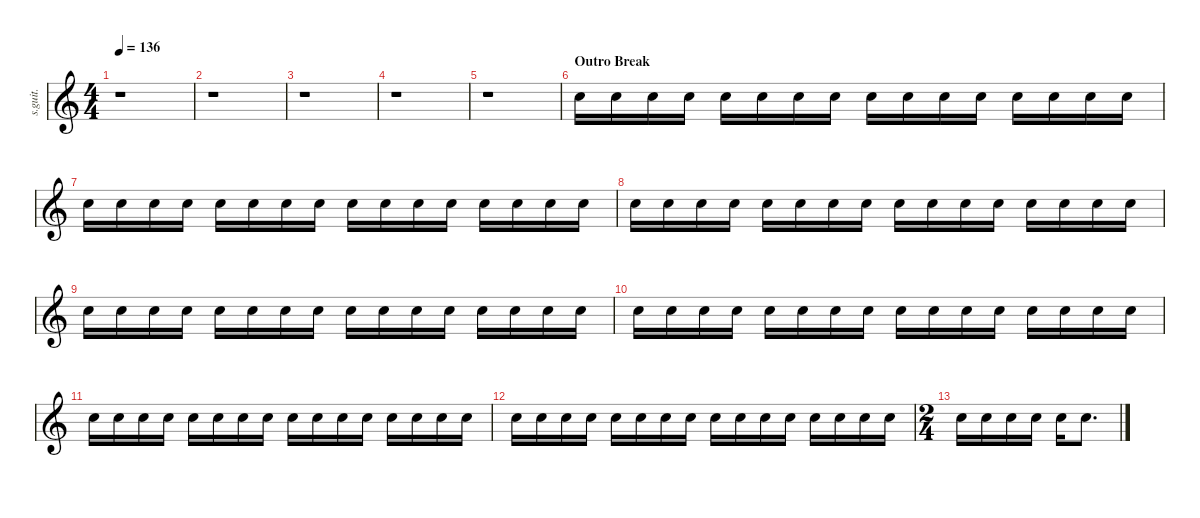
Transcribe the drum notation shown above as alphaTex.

\defaultSystemsLayout 4
\hideDynamics
\bracketExtendMode nobrackets
\track ("Chris Fehn" "s.guit.") {instrument percussion}
\staff {score}
\articulation defaults
\ts (4 4)
\tempo 136
\clef g2
\ks c
r.1{dy fff} |
r.1 |
r.1 |
r.1 |
r.1 |
\section ("" "Outro Break")
"Snare (hit) 2".16{lyrics (0 "") lyrics (1 "") lyrics (2 "") lyrics (3 "") lyrics (4 "") dy mp} "Snare (hit) 2".16{lyrics (0 "") lyrics (1 "") lyrics (2 "") lyrics (3 "") lyrics (4 "")} "Snare (hit) 2".16{lyrics (0 "") lyrics (1 "") lyrics (2 "") lyrics (3 "") lyrics (4 "")} "Snare (hit) 2".16{lyrics (0 "") lyrics (1 "") lyrics (2 "") lyrics (3 "") lyrics (4 "")} "Snare (hit) 2".16{lyrics (0 "") lyrics (1 "") lyrics (2 "") lyrics (3 "") lyrics (4 "")} "Snare (hit) 2".16{lyrics (0 "") lyrics (1 "") lyrics (2 "") lyrics (3 "") lyrics (4 "")} "Snare (hit) 2".16{lyrics (0 "") lyrics (1 "") lyrics (2 "") lyrics (3 "") lyrics (4 "")} "Snare (hit) 2".16{lyrics (0 "") lyrics (1 "") lyrics (2 "") lyrics (3 "") lyrics (4 "")} "Snare (hit) 2".16{lyrics (0 "") lyrics (1 "") lyrics (2 "") lyrics (3 "") lyrics (4 "")} "Snare (hit) 2".16{lyrics (0 "") lyrics (1 "") lyrics (2 "") lyrics (3 "") lyrics (4 "")} "Snare (hit) 2".16{lyrics (0 "") lyrics (1 "") lyrics (2 "") lyrics (3 "") lyrics (4 "")} "Snare (hit) 2".16{lyrics (0 "") lyrics (1 "") lyrics (2 "") lyrics (3 "") lyrics (4 "")} "Snare (hit) 2".16{lyrics (0 "") lyrics (1 "") lyrics (2 "") lyrics (3 "") lyrics (4 "")} "Snare (hit) 2".16{lyrics (0 "") lyrics (1 "") lyrics (2 "") lyrics (3 "") lyrics (4 "")} "Snare (hit) 2".16{lyrics (0 "") lyrics (1 "") lyrics (2 "") lyrics (3 "") lyrics (4 "")} "Snare (hit) 2".16{lyrics (0 "") lyrics (1 "") lyrics (2 "") lyrics (3 "") lyrics (4 "")} |
"Snare (hit) 2".16{lyrics (0 "") lyrics (1 "") lyrics (2 "") lyrics (3 "") lyrics (4 "")} "Snare (hit) 2".16{lyrics (0 "") lyrics (1 "") lyrics (2 "") lyrics (3 "") lyrics (4 "")} "Snare (hit) 2".16{lyrics (0 "") lyrics (1 "") lyrics (2 "") lyrics (3 "") lyrics (4 "")} "Snare (hit) 2".16{lyrics (0 "") lyrics (1 "") lyrics (2 "") lyrics (3 "") lyrics (4 "")} "Snare (hit) 2".16{lyrics (0 "") lyrics (1 "") lyrics (2 "") lyrics (3 "") lyrics (4 "")} "Snare (hit) 2".16{lyrics (0 "") lyrics (1 "") lyrics (2 "") lyrics (3 "") lyrics (4 "")} "Snare (hit) 2".16{lyrics (0 "") lyrics (1 "") lyrics (2 "") lyrics (3 "") lyrics (4 "")} "Snare (hit) 2".16{lyrics (0 "") lyrics (1 "") lyrics (2 "") lyrics (3 "") lyrics (4 "")} "Snare (hit) 2".16{lyrics (0 "") lyrics (1 "") lyrics (2 "") lyrics (3 "") lyrics (4 "")} "Snare (hit) 2".16{lyrics (0 "") lyrics (1 "") lyrics (2 "") lyrics (3 "") lyrics (4 "")} "Snare (hit) 2".16{lyrics (0 "") lyrics (1 "") lyrics (2 "") lyrics (3 "") lyrics (4 "")} "Snare (hit) 2".16{lyrics (0 "") lyrics (1 "") lyrics (2 "") lyrics (3 "") lyrics (4 "")} "Snare (hit) 2".16{lyrics (0 "") lyrics (1 "") lyrics (2 "") lyrics (3 "") lyrics (4 "")} "Snare (hit) 2".16{lyrics (0 "") lyrics (1 "") lyrics (2 "") lyrics (3 "") lyrics (4 "")} "Snare (hit) 2".16{lyrics (0 "") lyrics (1 "") lyrics (2 "") lyrics (3 "") lyrics (4 "")} "Snare (hit) 2".16{lyrics (0 "") lyrics (1 "") lyrics (2 "") lyrics (3 "") lyrics (4 "")} |
"Snare (hit) 2".16{lyrics (0 "") lyrics (1 "") lyrics (2 "") lyrics (3 "") lyrics (4 "")} "Snare (hit) 2".16{lyrics (0 "") lyrics (1 "") lyrics (2 "") lyrics (3 "") lyrics (4 "")} "Snare (hit) 2".16{lyrics (0 "") lyrics (1 "") lyrics (2 "") lyrics (3 "") lyrics (4 "")} "Snare (hit) 2".16{lyrics (0 "") lyrics (1 "") lyrics (2 "") lyrics (3 "") lyrics (4 "")} "Snare (hit) 2".16{lyrics (0 "") lyrics (1 "") lyrics (2 "") lyrics (3 "") lyrics (4 "")} "Snare (hit) 2".16{lyrics (0 "") lyrics (1 "") lyrics (2 "") lyrics (3 "") lyrics (4 "")} "Snare (hit) 2".16{lyrics (0 "") lyrics (1 "") lyrics (2 "") lyrics (3 "") lyrics (4 "")} "Snare (hit) 2".16{lyrics (0 "") lyrics (1 "") lyrics (2 "") lyrics (3 "") lyrics (4 "")} "Snare (hit) 2".16{lyrics (0 "") lyrics (1 "") lyrics (2 "") lyrics (3 "") lyrics (4 "")} "Snare (hit) 2".16{lyrics (0 "") lyrics (1 "") lyrics (2 "") lyrics (3 "") lyrics (4 "")} "Snare (hit) 2".16{lyrics (0 "") lyrics (1 "") lyrics (2 "") lyrics (3 "") lyrics (4 "")} "Snare (hit) 2".16{lyrics (0 "") lyrics (1 "") lyrics (2 "") lyrics (3 "") lyrics (4 "")} "Snare (hit) 2".16{lyrics (0 "") lyrics (1 "") lyrics (2 "") lyrics (3 "") lyrics (4 "")} "Snare (hit) 2".16{lyrics (0 "") lyrics (1 "") lyrics (2 "") lyrics (3 "") lyrics (4 "")} "Snare (hit) 2".16{lyrics (0 "") lyrics (1 "") lyrics (2 "") lyrics (3 "") lyrics (4 "")} "Snare (hit) 2".16{lyrics (0 "") lyrics (1 "") lyrics (2 "") lyrics (3 "") lyrics (4 "")} |
"Snare (hit) 2".16{lyrics (0 "") lyrics (1 "") lyrics (2 "") lyrics (3 "") lyrics (4 "")} "Snare (hit) 2".16{lyrics (0 "") lyrics (1 "") lyrics (2 "") lyrics (3 "") lyrics (4 "")} "Snare (hit) 2".16{lyrics (0 "") lyrics (1 "") lyrics (2 "") lyrics (3 "") lyrics (4 "")} "Snare (hit) 2".16{lyrics (0 "") lyrics (1 "") lyrics (2 "") lyrics (3 "") lyrics (4 "")} "Snare (hit) 2".16{lyrics (0 "") lyrics (1 "") lyrics (2 "") lyrics (3 "") lyrics (4 "")} "Snare (hit) 2".16{lyrics (0 "") lyrics (1 "") lyrics (2 "") lyrics (3 "") lyrics (4 "")} "Snare (hit) 2".16{lyrics (0 "") lyrics (1 "") lyrics (2 "") lyrics (3 "") lyrics (4 "")} "Snare (hit) 2".16{lyrics (0 "") lyrics (1 "") lyrics (2 "") lyrics (3 "") lyrics (4 "")} "Snare (hit) 2".16{lyrics (0 "") lyrics (1 "") lyrics (2 "") lyrics (3 "") lyrics (4 "")} "Snare (hit) 2".16{lyrics (0 "") lyrics (1 "") lyrics (2 "") lyrics (3 "") lyrics (4 "")} "Snare (hit) 2".16{lyrics (0 "") lyrics (1 "") lyrics (2 "") lyrics (3 "") lyrics (4 "")} "Snare (hit) 2".16{lyrics (0 "") lyrics (1 "") lyrics (2 "") lyrics (3 "") lyrics (4 "")} "Snare (hit) 2".16{lyrics (0 "") lyrics (1 "") lyrics (2 "") lyrics (3 "") lyrics (4 "")} "Snare (hit) 2".16{lyrics (0 "") lyrics (1 "") lyrics (2 "") lyrics (3 "") lyrics (4 "")} "Snare (hit) 2".16{lyrics (0 "") lyrics (1 "") lyrics (2 "") lyrics (3 "") lyrics (4 "")} "Snare (hit) 2".16{lyrics (0 "") lyrics (1 "") lyrics (2 "") lyrics (3 "") lyrics (4 "")} |
"Snare (hit) 2".16{lyrics (0 "") lyrics (1 "") lyrics (2 "") lyrics (3 "") lyrics (4 "")} "Snare (hit) 2".16{lyrics (0 "") lyrics (1 "") lyrics (2 "") lyrics (3 "") lyrics (4 "")} "Snare (hit) 2".16{lyrics (0 "") lyrics (1 "") lyrics (2 "") lyrics (3 "") lyrics (4 "")} "Snare (hit) 2".16{lyrics (0 "") lyrics (1 "") lyrics (2 "") lyrics (3 "") lyrics (4 "")} "Snare (hit) 2".16{lyrics (0 "") lyrics (1 "") lyrics (2 "") lyrics (3 "") lyrics (4 "")} "Snare (hit) 2".16{lyrics (0 "") lyrics (1 "") lyrics (2 "") lyrics (3 "") lyrics (4 "")} "Snare (hit) 2".16{lyrics (0 "") lyrics (1 "") lyrics (2 "") lyrics (3 "") lyrics (4 "")} "Snare (hit) 2".16{lyrics (0 "") lyrics (1 "") lyrics (2 "") lyrics (3 "") lyrics (4 "")} "Snare (hit) 2".16{lyrics (0 "") lyrics (1 "") lyrics (2 "") lyrics (3 "") lyrics (4 "")} "Snare (hit) 2".16{lyrics (0 "") lyrics (1 "") lyrics (2 "") lyrics (3 "") lyrics (4 "")} "Snare (hit) 2".16{lyrics (0 "") lyrics (1 "") lyrics (2 "") lyrics (3 "") lyrics (4 "")} "Snare (hit) 2".16{lyrics (0 "") lyrics (1 "") lyrics (2 "") lyrics (3 "") lyrics (4 "")} "Snare (hit) 2".16{lyrics (0 "") lyrics (1 "") lyrics (2 "") lyrics (3 "") lyrics (4 "")} "Snare (hit) 2".16{lyrics (0 "") lyrics (1 "") lyrics (2 "") lyrics (3 "") lyrics (4 "")} "Snare (hit) 2".16{lyrics (0 "") lyrics (1 "") lyrics (2 "") lyrics (3 "") lyrics (4 "")} "Snare (hit) 2".16{lyrics (0 "") lyrics (1 "") lyrics (2 "") lyrics (3 "") lyrics (4 "")} |
"Snare (hit) 2".16{lyrics (0 "") lyrics (1 "") lyrics (2 "") lyrics (3 "") lyrics (4 "")} "Snare (hit) 2".16{lyrics (0 "") lyrics (1 "") lyrics (2 "") lyrics (3 "") lyrics (4 "")} "Snare (hit) 2".16{lyrics (0 "") lyrics (1 "") lyrics (2 "") lyrics (3 "") lyrics (4 "")} "Snare (hit) 2".16{lyrics (0 "") lyrics (1 "") lyrics (2 "") lyrics (3 "") lyrics (4 "")} "Snare (hit) 2".16{lyrics (0 "") lyrics (1 "") lyrics (2 "") lyrics (3 "") lyrics (4 "")} "Snare (hit) 2".16{lyrics (0 "") lyrics (1 "") lyrics (2 "") lyrics (3 "") lyrics (4 "")} "Snare (hit) 2".16{lyrics (0 "") lyrics (1 "") lyrics (2 "") lyrics (3 "") lyrics (4 "")} "Snare (hit) 2".16{lyrics (0 "") lyrics (1 "") lyrics (2 "") lyrics (3 "") lyrics (4 "")} "Snare (hit) 2".16{lyrics (0 "") lyrics (1 "") lyrics (2 "") lyrics (3 "") lyrics (4 "")} "Snare (hit) 2".16{lyrics (0 "") lyrics (1 "") lyrics (2 "") lyrics (3 "") lyrics (4 "")} "Snare (hit) 2".16{lyrics (0 "") lyrics (1 "") lyrics (2 "") lyrics (3 "") lyrics (4 "")} "Snare (hit) 2".16{lyrics (0 "") lyrics (1 "") lyrics (2 "") lyrics (3 "") lyrics (4 "")} "Snare (hit) 2".16{lyrics (0 "") lyrics (1 "") lyrics (2 "") lyrics (3 "") lyrics (4 "")} "Snare (hit) 2".16{lyrics (0 "") lyrics (1 "") lyrics (2 "") lyrics (3 "") lyrics (4 "")} "Snare (hit) 2".16{lyrics (0 "") lyrics (1 "") lyrics (2 "") lyrics (3 "") lyrics (4 "")} "Snare (hit) 2".16{lyrics (0 "") lyrics (1 "") lyrics (2 "") lyrics (3 "") lyrics (4 "")} |
"Snare (hit) 2".16{lyrics (0 "") lyrics (1 "") lyrics (2 "") lyrics (3 "") lyrics (4 "")} "Snare (hit) 2".16{lyrics (0 "") lyrics (1 "") lyrics (2 "") lyrics (3 "") lyrics (4 "")} "Snare (hit) 2".16{lyrics (0 "") lyrics (1 "") lyrics (2 "") lyrics (3 "") lyrics (4 "")} "Snare (hit) 2".16{lyrics (0 "") lyrics (1 "") lyrics (2 "") lyrics (3 "") lyrics (4 "")} "Snare (hit) 2".16{lyrics (0 "") lyrics (1 "") lyrics (2 "") lyrics (3 "") lyrics (4 "")} "Snare (hit) 2".16{lyrics (0 "") lyrics (1 "") lyrics (2 "") lyrics (3 "") lyrics (4 "")} "Snare (hit) 2".16{lyrics (0 "") lyrics (1 "") lyrics (2 "") lyrics (3 "") lyrics (4 "")} "Snare (hit) 2".16{lyrics (0 "") lyrics (1 "") lyrics (2 "") lyrics (3 "") lyrics (4 "")} "Snare (hit) 2".16{lyrics (0 "") lyrics (1 "") lyrics (2 "") lyrics (3 "") lyrics (4 "")} "Snare (hit) 2".16{lyrics (0 "") lyrics (1 "") lyrics (2 "") lyrics (3 "") lyrics (4 "")} "Snare (hit) 2".16{lyrics (0 "") lyrics (1 "") lyrics (2 "") lyrics (3 "") lyrics (4 "")} "Snare (hit) 2".16{lyrics (0 "") lyrics (1 "") lyrics (2 "") lyrics (3 "") lyrics (4 "")} "Snare (hit) 2".16{lyrics (0 "") lyrics (1 "") lyrics (2 "") lyrics (3 "") lyrics (4 "")} "Snare (hit) 2".16{lyrics (0 "") lyrics (1 "") lyrics (2 "") lyrics (3 "") lyrics (4 "")} "Snare (hit) 2".16{lyrics (0 "") lyrics (1 "") lyrics (2 "") lyrics (3 "") lyrics (4 "")} "Snare (hit) 2".16{lyrics (0 "") lyrics (1 "") lyrics (2 "") lyrics (3 "") lyrics (4 "")} |
\ts (2 4)
\beaming (8 2 2 2 2)
"Snare (hit) 2".16{lyrics (0 "") lyrics (1 "") lyrics (2 "") lyrics (3 "") lyrics (4 "")} "Snare (hit) 2".16{lyrics (0 "") lyrics (1 "") lyrics (2 "") lyrics (3 "") lyrics (4 "")} "Snare (hit) 2".16{lyrics (0 "") lyrics (1 "") lyrics (2 "") lyrics (3 "") lyrics (4 "") dy mf} "Snare (hit) 2".16{lyrics (0 "") lyrics (1 "") lyrics (2 "") lyrics (3 "") lyrics (4 "")} "Snare (hit) 2".16{lyrics (0 "") lyrics (1 "") lyrics (2 "") lyrics (3 "") lyrics (4 "")} "Snare (hit) 2".8{d lyrics (0 "") lyrics (1 "") lyrics (2 "") lyrics (3 "") lyrics (4 "")}
